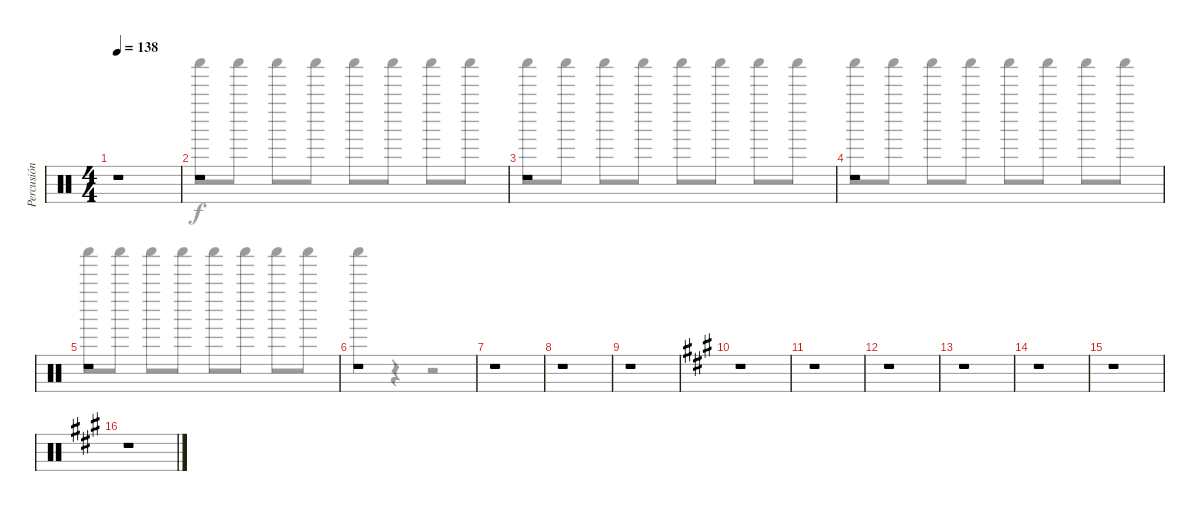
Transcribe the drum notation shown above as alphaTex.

\track ("Percusión" "Percusión") {instrument percussion}
\staff {score}
\articulation defaults
\voice
\ts (4 4)
\tempo 138
\clef neutral
\ks c
r.1{dy f} |
r.1 |
r.1 |
r.1 |
r.1 |
r.1 |
r.1 |
r.1 |
r.1 |
\ks a
r.1 |
r.1 |
r.1 |
r.1 |
r.1 |
r.1 |
r.1
\voice
\clef neutral
\ottava regular
\simile none
\ks c
|
"Shaker (hit)".8 "Shaker (hit)".8 "Shaker (hit)".8 "Shaker (hit)".8 "Shaker (hit)".8 "Shaker (hit)".8 "Shaker (hit)".8 "Shaker (hit)".8 |
"Shaker (hit)".8 "Shaker (hit)".8 "Shaker (hit)".8 "Shaker (hit)".8 "Shaker (hit)".8 "Shaker (hit)".8 "Shaker (hit)".8 "Shaker (hit)".8 |
"Shaker (hit)".8 "Shaker (hit)".8 "Shaker (hit)".8 "Shaker (hit)".8 "Shaker (hit)".8 "Shaker (hit)".8 "Shaker (hit)".8 "Shaker (hit)".8 |
"Shaker (hit)".8 "Shaker (hit)".8 "Shaker (hit)".8 "Shaker (hit)".8 "Shaker (hit)".8 "Shaker (hit)".8 "Shaker (hit)".8 "Shaker (hit)".8 |
"Shaker (hit)".4 r.4 r.2 |
|
|
|
\ks a
|
|
|
|
|
|
